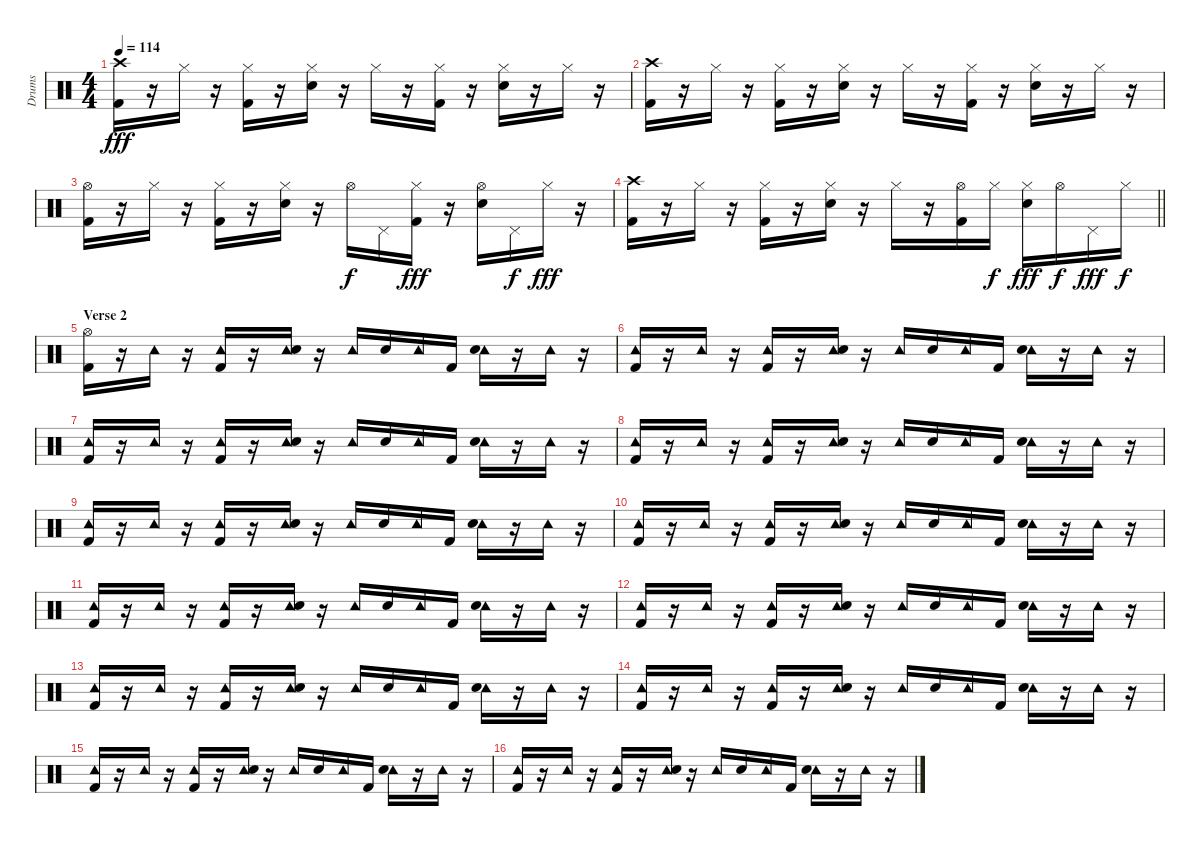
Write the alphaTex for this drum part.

\track ("Drums" "Drums") {instrument percussion bank 127}
\staff {score}
\articulation defaults
\ts (4 4)
\tempo 114
\clef neutral
\ks c
("Crash high (hit)" "Kick (hit) 2").16{dy fff} r.16 "Hi-Hat (closed)".16 r.16 ("Hi-Hat (closed)" "Kick (hit) 2").16 r.16 ("Hi-Hat (closed)" "Electric Snare (hit)").16 r.16 "Hi-Hat (closed)".16 r.16 ("Hi-Hat (closed)" "Kick (hit) 2").16 r.16 ("Hi-Hat (closed)" "Electric Snare (hit)").16 r.16 "Hi-Hat (closed)".16 r.16 |
("Crash high (hit)" "Kick (hit) 2").16 r.16 "Hi-Hat (closed)".16 r.16 ("Hi-Hat (closed)" "Kick (hit) 2").16 r.16 ("Hi-Hat (closed)" "Electric Snare (hit)").16 r.16 "Hi-Hat (closed)".16 r.16 ("Hi-Hat (closed)" "Kick (hit) 2").16 r.16 ("Hi-Hat (closed)" "Electric Snare (hit)").16 r.16 "Hi-Hat (closed)".16 r.16 |
("Hi-Hat (open)" "Kick (hit) 2").16 r.16 "Hi-Hat (closed)".16 r.16 ("Hi-Hat (closed)" "Kick (hit) 2").16 r.16 ("Hi-Hat (closed)" "Electric Snare (hit)").16 r.16 "Hi-Hat (open)".16{dy f} "Pedal Hi-Hat (hit)".16 ("Hi-Hat (closed)" "Kick (hit) 2").16{dy fff} r.16 ("Hi-Hat (open)" "Electric Snare (hit)").16 "Pedal Hi-Hat (hit)".16{dy f} "Hi-Hat (closed)".16{dy fff} r.16 |
\barLineRight lightlight
("Crash high (hit)" "Kick (hit) 2").16 r.16 "Hi-Hat (closed)".16 r.16 ("Hi-Hat (closed)" "Kick (hit) 2").16 r.16 ("Hi-Hat (closed)" "Electric Snare (hit)").16 r.16 "Hi-Hat (closed)".16 r.16 ("Hi-Hat (open)" "Kick (hit) 2").16 "Hi-Hat (closed)".16{dy f} ("Hi-Hat (closed)" "Electric Snare (hit)").16{dy fff} "Hi-Hat (open)".16{dy f} "Pedal Hi-Hat (hit)".16{dy fff} "Hi-Hat (closed)".16{dy f} |
\section ("" "Verse 2")
("Hi-Hat (open)" "Kick (hit) 2").16 r.16 "Tambourine (hit)".16 r.16 ("Tambourine (hit)" "Kick (hit) 2").16 r.16 ("Tambourine (hit)" "Electric Snare (hit)").16 r.16 "Tambourine (hit)".16 "Electric Snare (hit)".16 "Tambourine (hit)".16 "Kick (hit) 2".16 ("Tambourine (hit)" "Electric Snare (hit)").16 r.16 "Tambourine (hit)".16 r.16 |
("Tambourine (hit)" "Kick (hit) 2").16 r.16 "Tambourine (hit)".16 r.16 ("Tambourine (hit)" "Kick (hit) 2").16 r.16 ("Tambourine (hit)" "Electric Snare (hit)").16 r.16 "Tambourine (hit)".16 "Electric Snare (hit)".16 "Tambourine (hit)".16 "Kick (hit) 2".16 ("Tambourine (hit)" "Electric Snare (hit)").16 r.16 "Tambourine (hit)".16 r.16 |
("Tambourine (hit)" "Kick (hit) 2").16 r.16 "Tambourine (hit)".16 r.16 ("Tambourine (hit)" "Kick (hit) 2").16 r.16 ("Tambourine (hit)" "Electric Snare (hit)").16 r.16 "Tambourine (hit)".16 "Electric Snare (hit)".16 "Tambourine (hit)".16 "Kick (hit) 2".16 ("Tambourine (hit)" "Electric Snare (hit)").16 r.16 "Tambourine (hit)".16 r.16 |
("Tambourine (hit)" "Kick (hit) 2").16 r.16 "Tambourine (hit)".16 r.16 ("Tambourine (hit)" "Kick (hit) 2").16 r.16 ("Tambourine (hit)" "Electric Snare (hit)").16 r.16 "Tambourine (hit)".16 "Electric Snare (hit)".16 "Tambourine (hit)".16 "Kick (hit) 2".16 ("Tambourine (hit)" "Electric Snare (hit)").16 r.16 "Tambourine (hit)".16 r.16 |
("Tambourine (hit)" "Kick (hit) 2").16 r.16 "Tambourine (hit)".16 r.16 ("Tambourine (hit)" "Kick (hit) 2").16 r.16 ("Tambourine (hit)" "Electric Snare (hit)").16 r.16 "Tambourine (hit)".16 "Electric Snare (hit)".16 "Tambourine (hit)".16 "Kick (hit) 2".16 ("Tambourine (hit)" "Electric Snare (hit)").16 r.16 "Tambourine (hit)".16 r.16 |
("Tambourine (hit)" "Kick (hit) 2").16 r.16 "Tambourine (hit)".16 r.16 ("Tambourine (hit)" "Kick (hit) 2").16 r.16 ("Tambourine (hit)" "Electric Snare (hit)").16 r.16 "Tambourine (hit)".16 "Electric Snare (hit)".16 "Tambourine (hit)".16 "Kick (hit) 2".16 ("Tambourine (hit)" "Electric Snare (hit)").16 r.16 "Tambourine (hit)".16 r.16 |
("Tambourine (hit)" "Kick (hit) 2").16 r.16 "Tambourine (hit)".16 r.16 ("Tambourine (hit)" "Kick (hit) 2").16 r.16 ("Tambourine (hit)" "Electric Snare (hit)").16 r.16 "Tambourine (hit)".16 "Electric Snare (hit)".16 "Tambourine (hit)".16 "Kick (hit) 2".16 ("Tambourine (hit)" "Electric Snare (hit)").16 r.16 "Tambourine (hit)".16 r.16 |
("Tambourine (hit)" "Kick (hit) 2").16 r.16 "Tambourine (hit)".16 r.16 ("Tambourine (hit)" "Kick (hit) 2").16 r.16 ("Tambourine (hit)" "Electric Snare (hit)").16 r.16 "Tambourine (hit)".16 "Electric Snare (hit)".16 "Tambourine (hit)".16 "Kick (hit) 2".16 ("Tambourine (hit)" "Electric Snare (hit)").16 r.16 "Tambourine (hit)".16 r.16 |
("Tambourine (hit)" "Kick (hit) 2").16 r.16 "Tambourine (hit)".16 r.16 ("Tambourine (hit)" "Kick (hit) 2").16 r.16 ("Tambourine (hit)" "Electric Snare (hit)").16 r.16 "Tambourine (hit)".16 "Electric Snare (hit)".16 "Tambourine (hit)".16 "Kick (hit) 2".16 ("Tambourine (hit)" "Electric Snare (hit)").16 r.16 "Tambourine (hit)".16 r.16 |
("Tambourine (hit)" "Kick (hit) 2").16 r.16 "Tambourine (hit)".16 r.16 ("Tambourine (hit)" "Kick (hit) 2").16 r.16 ("Tambourine (hit)" "Electric Snare (hit)").16 r.16 "Tambourine (hit)".16 "Electric Snare (hit)".16 "Tambourine (hit)".16 "Kick (hit) 2".16 ("Tambourine (hit)" "Electric Snare (hit)").16 r.16 "Tambourine (hit)".16 r.16 |
("Tambourine (hit)" "Kick (hit) 2").16 r.16 "Tambourine (hit)".16 r.16 ("Tambourine (hit)" "Kick (hit) 2").16 r.16 ("Tambourine (hit)" "Electric Snare (hit)").16 r.16 "Tambourine (hit)".16 "Electric Snare (hit)".16 "Tambourine (hit)".16 "Kick (hit) 2".16 ("Tambourine (hit)" "Electric Snare (hit)").16 r.16 "Tambourine (hit)".16 r.16 |
("Tambourine (hit)" "Kick (hit) 2").16 r.16 "Tambourine (hit)".16 r.16 ("Tambourine (hit)" "Kick (hit) 2").16 r.16 ("Tambourine (hit)" "Electric Snare (hit)").16 r.16 "Tambourine (hit)".16 "Electric Snare (hit)".16 "Tambourine (hit)".16 "Kick (hit) 2".16 ("Tambourine (hit)" "Electric Snare (hit)").16 r.16 "Tambourine (hit)".16 r.16
